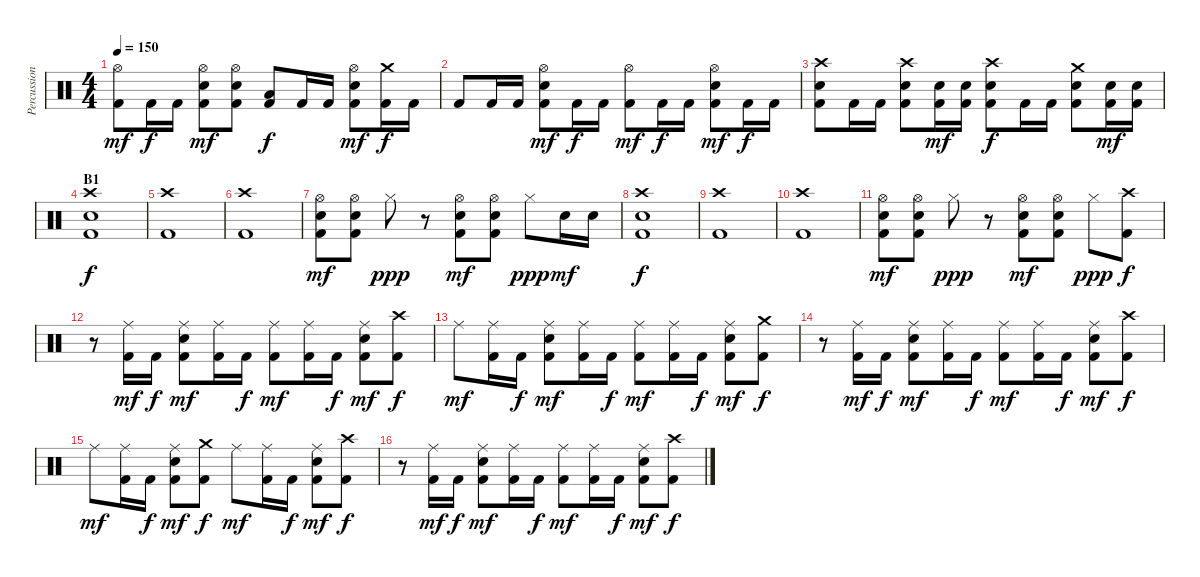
\track ("Percussion" "Percussion") {instrument percussion}
\staff {score}
\articulation defaults
\ts (4 4)
\tempo 150
\clef neutral
\ks c
("Hi-Hat (open)" "Kick (hit) 2").8{dy mf} "Kick (hit) 2".16{dy f} "Kick (hit) 2".16 ("Hi-Hat (open)" "Electric Snare (hit)" "Kick (hit) 2").8{dy mf} ("Hi-Hat (open)" "Electric Snare (hit)" "Kick (hit) 2").8 ("Low Floor Tom (hit)" "Kick (hit) 2").8{dy f} "Kick (hit) 2".16 "Kick (hit) 2".16 ("Hi-Hat (open)" "Electric Snare (hit)" "Kick (hit) 2").8{dy mf} ("Crash medium (hit)" "Kick (hit) 2").16{dy f} "Kick (hit) 2".16 |
"Kick (hit) 2".8 "Kick (hit) 2".16 "Kick (hit) 2".16 ("Hi-Hat (open)" "Electric Snare (hit)" "Kick (hit) 2").8{dy mf} "Kick (hit) 2".16{dy f} "Kick (hit) 2".16 ("Hi-Hat (open)" "Kick (hit) 2").8{dy mf} "Kick (hit) 2".16{dy f} "Kick (hit) 2".16 ("Hi-Hat (open)" "Electric Snare (hit)" "Kick (hit) 2").8{dy mf} "Kick (hit) 2".16{dy f} "Kick (hit) 2".16 |
("Crash high (hit)" "Electric Snare (hit)" "Kick (hit) 2").8 "Kick (hit) 2".16 "Kick (hit) 2".16 ("Crash high (hit)" "Electric Snare (hit)" "Kick (hit) 2").8 ("Electric Snare (hit)" "Kick (hit) 2").16{dy mf} ("Electric Snare (hit)" "Kick (hit) 2").16 ("Crash high (hit)" "Electric Snare (hit)" "Kick (hit) 2").8{dy f} "Kick (hit) 2".16 "Kick (hit) 2".16 ("Crash medium (hit)" "Electric Snare (hit)" "Kick (hit) 2").8 ("Electric Snare (hit)" "Kick (hit) 2").16{dy mf} ("Electric Snare (hit)" "Kick (hit) 2").16 |
\section ("" "B1")
("Crash high (hit)" "Electric Snare (hit)" "Kick (hit) 2").1{dy f} |
("Crash high (hit)" "Kick (hit) 2").1 |
("Crash high (hit)" "Kick (hit) 2").1 |
("Hi-Hat (open)" "Electric Snare (hit)" "Kick (hit) 2").8{dy mf} ("Hi-Hat (open)" "Electric Snare (hit)" "Kick (hit) 2").8 "Hi-Hat (closed)".8{dy ppp} r.8 ("Hi-Hat (open)" "Electric Snare (hit)" "Kick (hit) 2").8{dy mf} ("Hi-Hat (open)" "Electric Snare (hit)" "Kick (hit) 2").8 "Hi-Hat (closed)".8{dy ppp} "Electric Snare (hit)".16{dy mf} "Electric Snare (hit)".16 |
("Crash high (hit)" "Electric Snare (hit)" "Kick (hit) 2").1{dy f} |
("Crash high (hit)" "Kick (hit) 2").1 |
("Crash high (hit)" "Kick (hit) 2").1 |
("Hi-Hat (open)" "Electric Snare (hit)" "Kick (hit) 2").8{dy mf} ("Hi-Hat (open)" "Electric Snare (hit)" "Kick (hit) 2").8 "Hi-Hat (closed)".8{dy ppp} r.8 ("Hi-Hat (open)" "Electric Snare (hit)" "Kick (hit) 2").8{dy mf} ("Hi-Hat (open)" "Electric Snare (hit)" "Kick (hit) 2").8 "Hi-Hat (closed)".8{dy ppp} ("Crash high (hit)" "Kick (hit) 2").8{dy f} |
\section ("" "")
r.8 ("Ride (middle)" "Kick (hit) 2").16{dy mf} "Kick (hit) 2".16{dy f} ("Ride (middle)" "Electric Snare (hit)" "Kick (hit) 2").8{dy mf} ("Ride (middle)" "Kick (hit) 2").16 "Kick (hit) 2".16{dy f} ("Ride (middle)" "Kick (hit) 2").8{dy mf} ("Ride (middle)" "Kick (hit) 2").16 "Kick (hit) 2".16{dy f} ("Ride (middle)" "Electric Snare (hit)" "Kick (hit) 2").8{dy mf} ("Crash high (hit)" "Kick (hit) 2").8{dy f} |
"Ride (middle)".8{dy mf} ("Ride (middle)" "Kick (hit) 2").16 "Kick (hit) 2".16{dy f} ("Ride (middle)" "Electric Snare (hit)" "Kick (hit) 2").8{dy mf} ("Ride (middle)" "Kick (hit) 2").16 "Kick (hit) 2".16{dy f} ("Ride (middle)" "Kick (hit) 2").8{dy mf} ("Ride (middle)" "Kick (hit) 2").16 "Kick (hit) 2".16{dy f} ("Ride (middle)" "Electric Snare (hit)" "Kick (hit) 2").8{dy mf} ("Crash medium (hit)" "Kick (hit) 2").8{dy f} |
r.8 ("Ride (middle)" "Kick (hit) 2").16{dy mf} "Kick (hit) 2".16{dy f} ("Ride (middle)" "Electric Snare (hit)" "Kick (hit) 2").8{dy mf} ("Ride (middle)" "Kick (hit) 2").16 "Kick (hit) 2".16{dy f} ("Ride (middle)" "Kick (hit) 2").8{dy mf} ("Ride (middle)" "Kick (hit) 2").16 "Kick (hit) 2".16{dy f} ("Ride (middle)" "Electric Snare (hit)" "Kick (hit) 2").8{dy mf} ("Crash high (hit)" "Kick (hit) 2").8{dy f} |
"Ride (middle)".8{dy mf} ("Ride (middle)" "Kick (hit) 2").16 "Kick (hit) 2".16{dy f} ("Ride (middle)" "Electric Snare (hit)" "Kick (hit) 2").8{dy mf} ("Crash medium (hit)" "Kick (hit) 2").8{dy f} "Ride (middle)".8{dy mf} ("Ride (middle)" "Kick (hit) 2").16 "Kick (hit) 2".16{dy f} ("Ride (middle)" "Electric Snare (hit)" "Kick (hit) 2").8{dy mf} ("Crash high (hit)" "Kick (hit) 2").8{dy f} |
r.8 ("Ride (middle)" "Kick (hit) 2").16{dy mf} "Kick (hit) 2".16{dy f} ("Ride (middle)" "Electric Snare (hit)" "Kick (hit) 2").8{dy mf} ("Ride (middle)" "Kick (hit) 2").16 "Kick (hit) 2".16{dy f} ("Ride (middle)" "Kick (hit) 2").8{dy mf} ("Ride (middle)" "Kick (hit) 2").16 "Kick (hit) 2".16{dy f} ("Ride (middle)" "Electric Snare (hit)" "Kick (hit) 2").8{dy mf} ("Crash high (hit)" "Kick (hit) 2").8{dy f}
